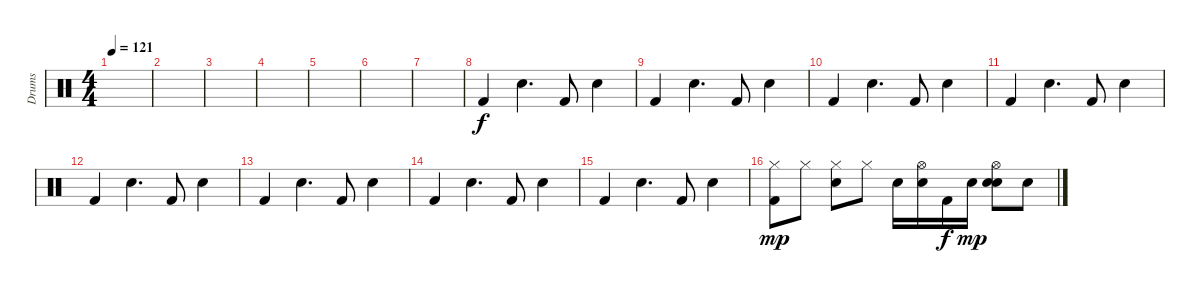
\track ("Drums" "Drums") {instrument percussion}
\staff {score}
\articulation defaults
\ts (4 4)
\tempo 121
\clef neutral
\ks c
|
|
|
|
|
|
|
"Kick (hit) 2".4{dy f volume 13} "Hand Clap (hit)".4{d} "Kick (hit) 2".8 "Hand Clap (hit)".4 |
"Kick (hit) 2".4 "Hand Clap (hit)".4{d} "Kick (hit) 2".8 "Hand Clap (hit)".4 |
"Kick (hit) 2".4 "Hand Clap (hit)".4{d} "Kick (hit) 2".8 "Hand Clap (hit)".4 |
"Kick (hit) 2".4 "Hand Clap (hit)".4{d} "Kick (hit) 2".8 "Hand Clap (hit)".4 |
"Kick (hit) 2".4 "Hand Clap (hit)".4{d} "Kick (hit) 2".8 "Hand Clap (hit)".4 |
"Kick (hit) 2".4 "Hand Clap (hit)".4{d} "Kick (hit) 2".8 "Hand Clap (hit)".4 |
"Kick (hit) 2".4 "Hand Clap (hit)".4{d} "Kick (hit) 2".8 "Hand Clap (hit)".4 |
"Kick (hit) 2".4 "Hand Clap (hit)".4{d} "Kick (hit) 2".8 "Hand Clap (hit)".4 |
("Hi-Hat (closed)" "Kick (hit) 2").8{dy mp balance 5} "Hi-Hat (closed)".8 ("Hi-Hat (closed)" "Hand Clap (hit)").8 "Hi-Hat (closed)".8 "Electric Snare (hit)".16 ("Hi-Hat (open)" "Electric Snare (hit)").16 "Kick (hit) 2".16{dy f} "Electric Snare (hit)".16{dy mp} ("Hi-Hat (open)" "Electric Snare (hit)" "Hand Clap (hit)").8 "Electric Snare (hit)".8
